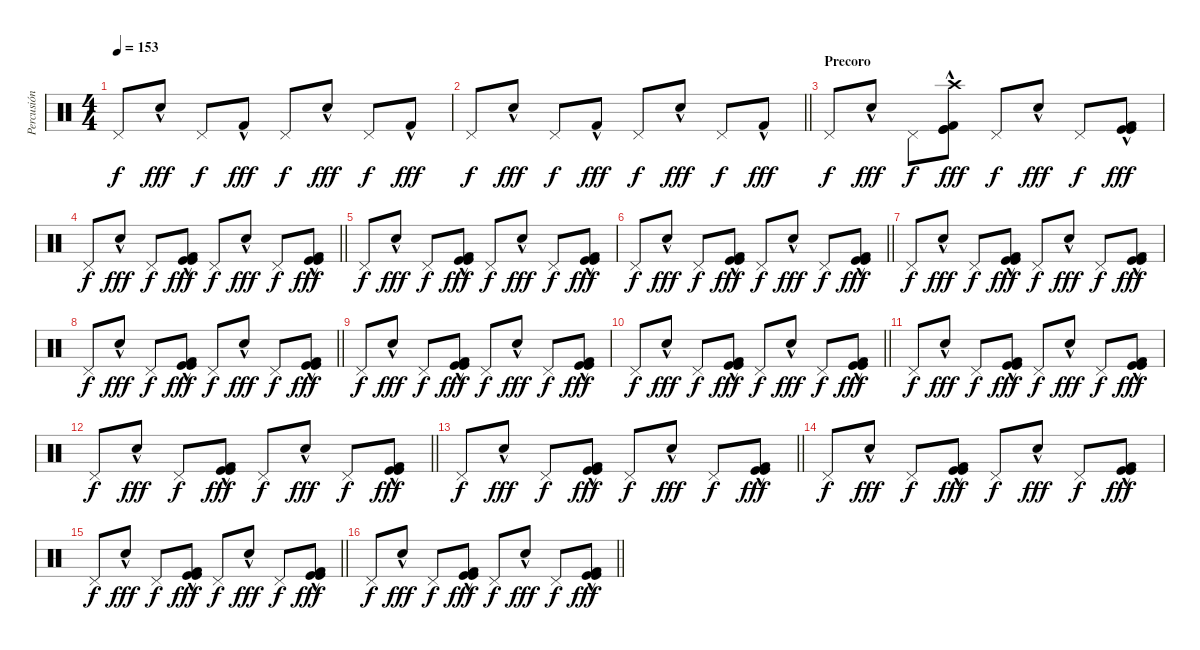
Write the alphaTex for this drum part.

\track ("Percusión (Javi Molina)" "Percusión ") {instrument percussion}
\staff {score}
\articulation defaults
\ts (4 4)
\tempo 153
\clef neutral
\ks c "Pedal Hi-Hat (hit)".8{dy f} "Electric Snare (hit)"{hac}.8{dy fff} "Pedal Hi-Hat (hit)".8{dy f} "Kick (hit) 2"{hac}.8{dy fff} "Pedal Hi-Hat (hit)".8{dy f} "Electric Snare (hit)"{hac}.8{dy fff} "Pedal Hi-Hat (hit)".8{dy f} "Kick (hit) 2"{hac}.8{dy fff}
|
\barLineRight lightlight "Pedal Hi-Hat (hit)".8{dy f} "Electric Snare (hit)"{hac}.8{dy fff} "Pedal Hi-Hat (hit)".8{dy f} "Kick (hit) 2"{hac}.8{dy fff} "Pedal Hi-Hat (hit)".8{dy f} "Electric Snare (hit)"{hac}.8{dy fff} "Pedal Hi-Hat (hit)".8{dy f} "Kick (hit) 2"{hac}.8{dy fff}
|
\section ("" "Precoro")
"Pedal Hi-Hat (hit)".8{dy f} "Electric Snare (hit)"{hac}.8{dy fff} "Pedal Hi-Hat (hit)".8{dy f} ("Kick (hit) 2"{hac} "Kick (hit)"{hac} "Kick (hit)"{hac} "Crash high (hit)").8{dy fff} "Pedal Hi-Hat (hit)".8{dy f} "Electric Snare (hit)"{hac}.8{dy fff} "Pedal Hi-Hat (hit)".8{dy f} ("Kick (hit) 2"{hac} "Kick (hit)"{hac} "Kick (hit)"{hac}).8{dy fff} |
\barLineRight lightlight "Pedal Hi-Hat (hit)".8{dy f} "Electric Snare (hit)"{hac}.8{dy fff} "Pedal Hi-Hat (hit)".8{dy f}
("Kick (hit) 2"{hac} "Kick (hit)"{hac} "Kick (hit)"{hac}).8{dy fff} "Pedal Hi-Hat (hit)".8{dy f} "Electric Snare (hit)"{hac}.8{dy fff} "Pedal Hi-Hat (hit)".8{dy f} ("Kick (hit) 2"{hac} "Kick (hit)"{hac} "Kick (hit)"{hac}).8{dy fff} |
"Pedal Hi-Hat (hit)".8{dy f} "Electric Snare (hit)"{hac}.8{dy fff} "Pedal Hi-Hat (hit)".8{dy f} ("Kick (hit) 2"{hac} "Kick (hit)"{hac} "Kick (hit)"{hac}).8{dy fff} "Pedal Hi-Hat (hit)".8{dy f} "Electric Snare (hit)"{hac}.8{dy fff} "Pedal Hi-Hat (hit)".8{dy f} ("Kick (hit) 2"{hac} "Kick (hit)"{hac} "Kick (hit)"{hac}).8{dy fff} |
\barLineRight lightlight "Pedal Hi-Hat (hit)".8{dy f} "Electric Snare (hit)"{hac}.8{dy fff} "Pedal Hi-Hat (hit)".8{dy f}
("Kick (hit) 2"{hac} "Kick (hit)"{hac} "Kick (hit)"{hac}).8{dy fff} "Pedal Hi-Hat (hit)".8{dy f} "Electric Snare (hit)"{hac}.8{dy fff} "Pedal Hi-Hat (hit)".8{dy f} ("Kick (hit) 2"{hac} "Kick (hit)"{hac} "Kick (hit)"{hac}).8{dy fff} |
"Pedal Hi-Hat (hit)".8{dy f} "Electric Snare (hit)"{hac}.8{dy fff} "Pedal Hi-Hat (hit)".8{dy f} ("Kick (hit) 2"{hac} "Kick (hit)"{hac} "Kick (hit)"{hac}).8{dy fff} "Pedal Hi-Hat (hit)".8{dy f} "Electric Snare (hit)"{hac}.8{dy fff} "Pedal Hi-Hat (hit)".8{dy f} ("Kick (hit) 2"{hac} "Kick (hit)"{hac} "Kick (hit)"{hac}).8{dy fff} |
\barLineRight lightlight "Pedal Hi-Hat (hit)".8{dy f} "Electric Snare (hit)"{hac}.8{dy fff} "Pedal Hi-Hat (hit)".8{dy f}
("Kick (hit) 2"{hac} "Kick (hit)"{hac} "Kick (hit)"{hac}).8{dy fff} "Pedal Hi-Hat (hit)".8{dy f} "Electric Snare (hit)"{hac}.8{dy fff} "Pedal Hi-Hat (hit)".8{dy f} ("Kick (hit) 2"{hac} "Kick (hit)"{hac} "Kick (hit)"{hac}).8{dy fff} |
"Pedal Hi-Hat (hit)".8{dy f} "Electric Snare (hit)"{hac}.8{dy fff} "Pedal Hi-Hat (hit)".8{dy f} ("Kick (hit) 2"{hac} "Kick (hit)"{hac} "Kick (hit)"{hac}).8{dy fff} "Pedal Hi-Hat (hit)".8{dy f} "Electric Snare (hit)"{hac}.8{dy fff} "Pedal Hi-Hat (hit)".8{dy f} ("Kick (hit) 2"{hac} "Kick (hit)"{hac} "Kick (hit)"{hac}).8{dy fff} |
\barLineRight lightlight "Pedal Hi-Hat (hit)".8{dy f} "Electric Snare (hit)"{hac}.8{dy fff} "Pedal Hi-Hat (hit)".8{dy f}
("Kick (hit) 2"{hac} "Kick (hit)"{hac} "Kick (hit)"{hac}).8{dy fff} "Pedal Hi-Hat (hit)".8{dy f} "Electric Snare (hit)"{hac}.8{dy fff} "Pedal Hi-Hat (hit)".8{dy f} ("Kick (hit) 2"{hac} "Kick (hit)"{hac} "Kick (hit)"{hac}).8{dy fff} |
"Pedal Hi-Hat (hit)".8{dy f} "Electric Snare (hit)"{hac}.8{dy fff} "Pedal Hi-Hat (hit)".8{dy f} ("Kick (hit) 2"{hac} "Kick (hit)"{hac} "Kick (hit)"{hac}).8{dy fff} "Pedal Hi-Hat (hit)".8{dy f} "Electric Snare (hit)"{hac}.8{dy fff} "Pedal Hi-Hat (hit)".8{dy f} ("Kick (hit) 2"{hac} "Kick (hit)"{hac} "Kick (hit)"{hac}).8{dy fff} |
\barLineRight lightlight "Pedal Hi-Hat (hit)".8{dy f} "Electric Snare (hit)"{hac}.8{dy fff} "Pedal Hi-Hat (hit)".8{dy f}
("Kick (hit) 2"{hac} "Kick (hit)"{hac} "Kick (hit)"{hac}).8{dy fff} "Pedal Hi-Hat (hit)".8{dy f} "Electric Snare (hit)"{hac}.8{dy fff} "Pedal Hi-Hat (hit)".8{dy f} ("Kick (hit) 2"{hac} "Kick (hit)"{hac} "Kick (hit)"{hac}).8{dy fff} |
\barLineRight lightlight "Pedal Hi-Hat (hit)".8{dy f} "Electric Snare (hit)"{hac}.8{dy fff} "Pedal Hi-Hat (hit)".8{dy f}
("Kick (hit) 2"{hac} "Kick (hit)"{hac} "Kick (hit)"{hac}).8{dy fff} "Pedal Hi-Hat (hit)".8{dy f} "Electric Snare (hit)"{hac}.8{dy fff} "Pedal Hi-Hat (hit)".8{dy f} ("Kick (hit) 2"{hac} "Kick (hit)"{hac} "Kick (hit)"{hac}).8{dy fff} |
"Pedal Hi-Hat (hit)".8{dy f} "Electric Snare (hit)"{hac}.8{dy fff} "Pedal Hi-Hat (hit)".8{dy f} ("Kick (hit) 2"{hac} "Kick (hit)"{hac} "Kick (hit)"{hac}).8{dy fff} "Pedal Hi-Hat (hit)".8{dy f} "Electric Snare (hit)"{hac}.8{dy fff} "Pedal Hi-Hat (hit)".8{dy f} ("Kick (hit) 2"{hac} "Kick (hit)"{hac} "Kick (hit)"{hac}).8{dy fff} |
\barLineRight lightlight "Pedal Hi-Hat (hit)".8{dy f} "Electric Snare (hit)"{hac}.8{dy fff} "Pedal Hi-Hat (hit)".8{dy f}
("Kick (hit) 2"{hac} "Kick (hit)"{hac} "Kick (hit)"{hac}).8{dy fff} "Pedal Hi-Hat (hit)".8{dy f} "Electric Snare (hit)"{hac}.8{dy fff} "Pedal Hi-Hat (hit)".8{dy f} ("Kick (hit) 2"{hac} "Kick (hit)"{hac} "Kick (hit)"{hac}).8{dy fff} |
\barLineRight lightlight "Pedal Hi-Hat (hit)".8{dy f} "Electric Snare (hit)"{hac}.8{dy fff} "Pedal Hi-Hat (hit)".8{dy f}
("Kick (hit) 2"{hac} "Kick (hit)"{hac} "Kick (hit)"{hac}).8{dy fff} "Pedal Hi-Hat (hit)".8{dy f} "Electric Snare (hit)"{hac}.8{dy fff} "Pedal Hi-Hat (hit)".8{dy f} ("Kick (hit) 2"{hac} "Kick (hit)"{hac} "Kick (hit)"{hac}).8{dy fff}
